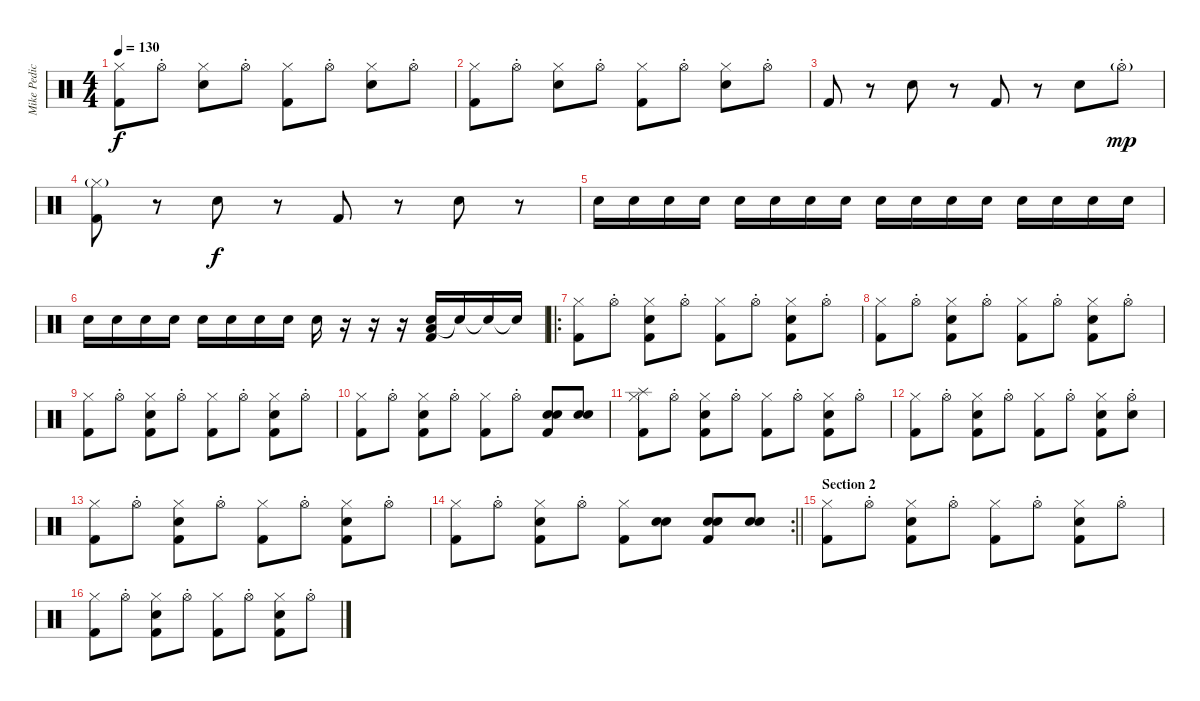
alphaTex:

\track ("Mike Pedicone - Drum" "Mike Pedic") {instrument percussion}
\staff {score}
\articulation defaults
\ts (4 4)
\tempo 130
\clef neutral
\ks c
("Hi-Hat (closed)" "Kick (hit) 2").8{dy f} "Hi-Hat (open)"{st}.8 ("Hi-Hat (closed)" "Electric Snare (hit)").8 "Hi-Hat (open)"{st}.8 ("Hi-Hat (closed)" "Kick (hit) 2").8 "Hi-Hat (open)"{st}.8 ("Hi-Hat (closed)" "Electric Snare (hit)").8 "Hi-Hat (open)"{st}.8 |
("Hi-Hat (closed)" "Kick (hit) 2").8 "Hi-Hat (open)"{st}.8 ("Hi-Hat (closed)" "Electric Snare (hit)").8 "Hi-Hat (open)"{st}.8 ("Hi-Hat (closed)" "Kick (hit) 2").8 "Hi-Hat (open)"{st}.8 ("Hi-Hat (closed)" "Electric Snare (hit)").8 "Hi-Hat (open)"{st}.8 |
"Kick (hit) 2".8 r.8 "Electric Snare (hit)".8 r.8 "Kick (hit) 2".8 r.8 "Electric Snare (hit)".8 "Hi-Hat (open)"{g st}.8{dy mp} |
("Hi-Hat (closed)"{g} "Kick (hit) 2").8 r.8 "Electric Snare (hit)".8{dy f} r.8 "Kick (hit) 2".8 r.8 "Electric Snare (hit)".8 r.8 |
"Electric Snare (hit)".16 "Electric Snare (hit)".16 "Electric Snare (hit)".16 "Electric Snare (hit)".16 "Electric Snare (hit)".16 "Electric Snare (hit)".16 "Electric Snare (hit)".16 "Electric Snare (hit)".16 "Electric Snare (hit)".16 "Electric Snare (hit)".16 "Electric Snare (hit)".16 "Electric Snare (hit)".16 "Electric Snare (hit)".16 "Electric Snare (hit)".16 "Electric Snare (hit)".16 "Electric Snare (hit)".16 |
"Electric Snare (hit)".16 "Electric Snare (hit)".16 "Electric Snare (hit)".16 "Electric Snare (hit)".16 "Electric Snare (hit)".16 "Electric Snare (hit)".16 "Electric Snare (hit)".16 "Electric Snare (hit)".16 "Electric Snare (hit)".16 r.16 r.16 r.16 ("Low Floor Tom (hit)" "Electric Snare (hit)" "Kick (hit) 2").16 "Electric Snare (hit)"{t}.16 "Electric Snare (hit)"{t}.16 "Electric Snare (hit)"{t}.16 |
\ro
("Hi-Hat (closed)" "Kick (hit) 2").8 "Hi-Hat (open)"{st}.8 ("Hi-Hat (closed)" "Electric Snare (hit)" "Kick (hit) 2").8 "Hi-Hat (open)"{st}.8 ("Hi-Hat (closed)" "Kick (hit) 2").8 "Hi-Hat (open)"{st}.8 ("Hi-Hat (closed)" "Electric Snare (hit)" "Kick (hit) 2").8 "Hi-Hat (open)"{st}.8 |
("Hi-Hat (closed)" "Kick (hit) 2").8 "Hi-Hat (open)"{st}.8 ("Hi-Hat (closed)" "Electric Snare (hit)" "Kick (hit) 2").8 "Hi-Hat (open)"{st}.8 ("Hi-Hat (closed)" "Kick (hit) 2").8 "Hi-Hat (open)"{st}.8 ("Hi-Hat (closed)" "Electric Snare (hit)" "Kick (hit) 2").8 "Hi-Hat (open)"{st}.8 |
("Hi-Hat (closed)" "Kick (hit) 2").8 "Hi-Hat (open)"{st}.8 ("Hi-Hat (closed)" "Electric Snare (hit)" "Kick (hit) 2").8 "Hi-Hat (open)"{st}.8 ("Hi-Hat (closed)" "Kick (hit) 2").8 "Hi-Hat (open)"{st}.8 ("Hi-Hat (closed)" "Electric Snare (hit)" "Kick (hit) 2").8 "Hi-Hat (open)"{st}.8 |
("Hi-Hat (closed)" "Kick (hit) 2").8 "Hi-Hat (open)"{st}.8 ("Hi-Hat (closed)" "Electric Snare (hit)" "Kick (hit) 2").8 "Hi-Hat (open)"{st}.8 ("Hi-Hat (closed)" "Kick (hit) 2").8 "Hi-Hat (open)"{st}.8 ("Hand Clap (hit)" "Electric Snare (hit)" "Kick (hit) 2").8 ("Hand Clap (hit)" "Electric Snare (hit)").8 |
("Hi-Hat (closed)" "Splash (hit)" "Kick (hit) 2").8 "Hi-Hat (open)"{st}.8 ("Hi-Hat (closed)" "Electric Snare (hit)" "Kick (hit) 2").8 "Hi-Hat (open)"{st}.8 ("Hi-Hat (closed)" "Kick (hit) 2").8 "Hi-Hat (open)"{st}.8 ("Hi-Hat (closed)" "Electric Snare (hit)" "Kick (hit) 2").8 "Hi-Hat (open)"{st}.8 |
("Hi-Hat (closed)" "Kick (hit) 2").8 "Hi-Hat (open)"{st}.8 ("Hi-Hat (closed)" "Electric Snare (hit)" "Kick (hit) 2").8 "Hi-Hat (open)"{st}.8 ("Hi-Hat (closed)" "Kick (hit) 2").8 "Hi-Hat (open)"{st}.8 ("Hi-Hat (closed)" "Electric Snare (hit)" "Kick (hit) 2").8 ("Hi-Hat (open)"{st} "Electric Snare (hit)").8 |
("Hi-Hat (closed)" "Kick (hit) 2").8 "Hi-Hat (open)"{st}.8 ("Hi-Hat (closed)" "Electric Snare (hit)" "Kick (hit) 2").8 "Hi-Hat (open)"{st}.8 ("Hi-Hat (closed)" "Kick (hit) 2").8 "Hi-Hat (open)"{st}.8 ("Hi-Hat (closed)" "Electric Snare (hit)" "Kick (hit) 2").8 "Hi-Hat (open)"{st}.8 |
\rc 2
\barLineRight lightlight
("Hi-Hat (closed)" "Kick (hit) 2").8 "Hi-Hat (open)"{st}.8 ("Hi-Hat (closed)" "Electric Snare (hit)" "Kick (hit) 2").8 "Hi-Hat (open)"{st}.8 ("Hi-Hat (closed)" "Kick (hit) 2").8 ("Hand Clap (hit)" "Electric Snare (hit)").8 ("Hand Clap (hit)" "Electric Snare (hit)" "Kick (hit) 2").8 ("Hand Clap (hit)" "Electric Snare (hit)").8 |
\section ("" "Section 2")
("Hi-Hat (closed)" "Kick (hit) 2").8 "Hi-Hat (open)"{st}.8 ("Hi-Hat (closed)" "Electric Snare (hit)" "Kick (hit) 2").8 "Hi-Hat (open)"{st}.8 ("Hi-Hat (closed)" "Kick (hit) 2").8 "Hi-Hat (open)"{st}.8 ("Hi-Hat (closed)" "Electric Snare (hit)" "Kick (hit) 2").8 "Hi-Hat (open)"{st}.8 |
("Hi-Hat (closed)" "Kick (hit) 2").8 "Hi-Hat (open)"{st}.8 ("Hi-Hat (closed)" "Electric Snare (hit)" "Kick (hit) 2").8 "Hi-Hat (open)"{st}.8 ("Hi-Hat (closed)" "Kick (hit) 2").8 "Hi-Hat (open)"{st}.8 ("Hi-Hat (closed)" "Electric Snare (hit)" "Kick (hit) 2").8 "Hi-Hat (open)"{st}.8
